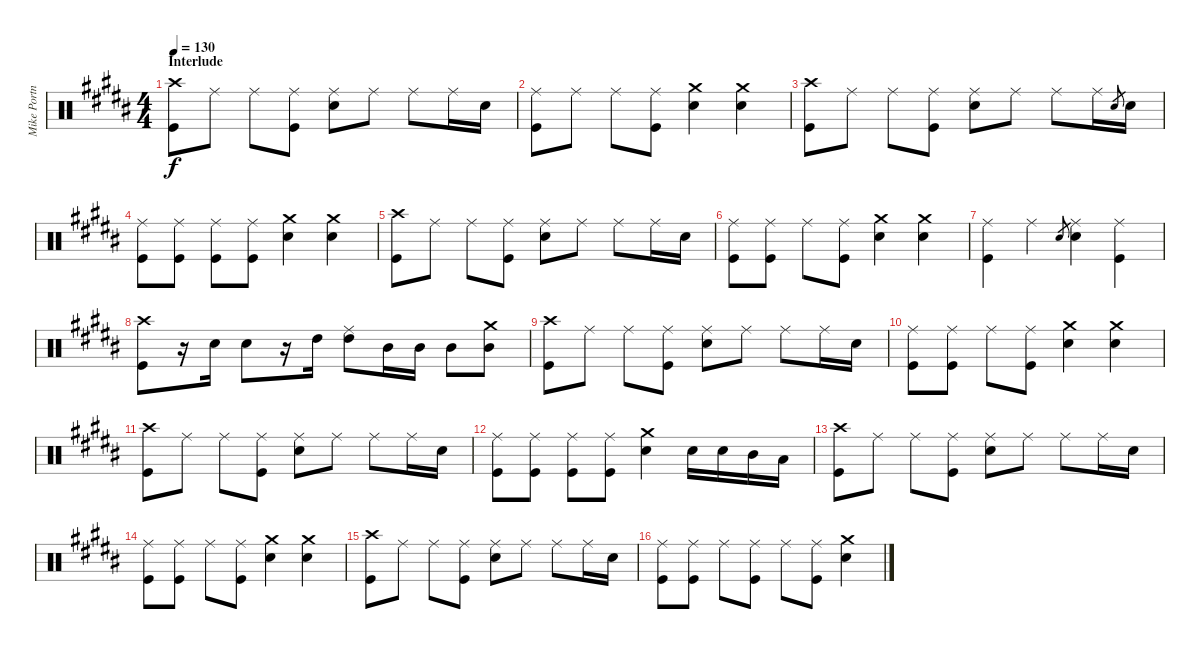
\track ("Mike Portnoy" "Mike Portn") {instrument percussion}
\staff {score}
\articulation defaults
\ts (4 4)
\section ("" "Interlude")
\tempo 130
\clef neutral
\ks g#minor
("Crash high (hit)" "Kick (hit)").8{dy f} "Ride (middle)".8 "Ride (middle)".8 ("Ride (middle)" "Kick (hit)").8 ("Ride (middle)" "Electric Snare (hit)").8 "Ride (middle)".8 "Ride (middle)".8 "Ride (middle)".16 "Electric Snare (hit)".16 |
("Ride (middle)" "Kick (hit)").8 "Ride (middle)".8 "Ride (middle)".8 ("Ride (middle)" "Kick (hit)").8 ("Crash medium (hit)" "Electric Snare (hit)").4 ("Crash medium (hit)" "Electric Snare (hit)").4 |
("Crash high (hit)" "Kick (hit)").8 "Ride (middle)".8 "Ride (middle)".8 ("Ride (middle)" "Kick (hit)").8 ("Ride (middle)" "Electric Snare (hit)").8 "Ride (middle)".8 "Ride (middle)".8 "Ride (middle)".16 "Electric Snare (hit)".8{gr} "Electric Snare (hit)".16 |
("Ride (middle)" "Kick (hit)").8 ("Ride (middle)" "Kick (hit)").8 ("Ride (middle)" "Kick (hit)").8 ("Ride (middle)" "Kick (hit)").8 ("Crash medium (hit)" "Electric Snare (hit)").4 ("Crash medium (hit)" "Electric Snare (hit)").4 |
("Crash high (hit)" "Kick (hit)").8 "Ride (middle)".8 "Ride (middle)".8 ("Ride (middle)" "Kick (hit)").8 ("Ride (middle)" "Electric Snare (hit)").8 "Ride (middle)".8 "Ride (middle)".8 "Ride (middle)".16 "Electric Snare (hit)".16 |
("Ride (middle)" "Kick (hit)").8 ("Ride (middle)" "Kick (hit)").8 "Ride (middle)".8 ("Ride (middle)" "Kick (hit)").8 ("Crash medium (hit)" "Electric Snare (hit)").4 ("Crash medium (hit)" "Electric Snare (hit)").4 |
("Ride (middle)" "Kick (hit)").4 "Ride (middle)".4 "Electric Snare (hit)".8{gr} ("Ride (middle)" "Electric Snare (hit)").4 ("Ride (middle)" "Kick (hit)").4 |
("Crash high (hit)" "Kick (hit)").8 r.16 "Electric Snare (hit)".16 "Electric Snare (hit)".8 r.16 "High Tom (hit)".16 ("Ride (middle)" "High Tom (hit)").8 "Mid Tom (hit)".16 "Mid Tom (hit)".16 "Mid Tom (hit)".8 ("Crash medium (hit)" "Mid Tom (hit)").8 |
("Crash high (hit)" "Kick (hit)").8 "Ride (middle)".8 "Ride (middle)".8 ("Ride (middle)" "Kick (hit)").8 ("Ride (middle)" "Electric Snare (hit)").8 "Ride (middle)".8 "Ride (middle)".8 "Ride (middle)".16 "Electric Snare (hit)".16 |
("Ride (middle)" "Kick (hit)").8 ("Ride (middle)" "Kick (hit)").8 "Ride (middle)".8 ("Ride (middle)" "Kick (hit)").8 ("Crash medium (hit)" "Electric Snare (hit)").4 ("Crash medium (hit)" "Electric Snare (hit)").4 |
("Crash high (hit)" "Kick (hit)").8 "Ride (middle)".8 "Ride (middle)".8 ("Ride (middle)" "Kick (hit)").8 ("Ride (middle)" "Electric Snare (hit)").8 "Ride (middle)".8 "Ride (middle)".8 "Ride (middle)".16 "Electric Snare (hit)".16 |
("Ride (middle)" "Kick (hit)").8 ("Ride (middle)" "Kick (hit)").8 ("Ride (middle)" "Kick (hit)").8 ("Ride (middle)" "Kick (hit)").8 ("Crash medium (hit)" "Electric Snare (hit)").4 "Electric Snare (hit)".16 "Electric Snare (hit)".16 "Mid Tom (hit)".16 "Low Tom (hit)".16 |
("Crash high (hit)" "Kick (hit)").8 "Ride (middle)".8 "Ride (middle)".8 ("Ride (middle)" "Kick (hit)").8 ("Ride (middle)" "Electric Snare (hit)").8 "Ride (middle)".8 "Ride (middle)".8 "Ride (middle)".16 "Electric Snare (hit)".16 |
("Ride (middle)" "Kick (hit)").8 ("Ride (middle)" "Kick (hit)").8 "Ride (middle)".8 ("Ride (middle)" "Kick (hit)").8 ("Crash medium (hit)" "Electric Snare (hit)").4 ("Crash medium (hit)" "Electric Snare (hit)").4 |
("Crash high (hit)" "Kick (hit)").8 "Ride (middle)".8 "Ride (middle)".8 ("Ride (middle)" "Kick (hit)").8 ("Ride (middle)" "Electric Snare (hit)").8 "Ride (middle)".8 "Ride (middle)".8 "Ride (middle)".16 "Electric Snare (hit)".16 |
("Ride (middle)" "Kick (hit)").8 ("Ride (middle)" "Kick (hit)").8 "Ride (middle)".8 ("Ride (middle)" "Kick (hit)").8 "Ride (middle)".8 ("Ride (middle)" "Kick (hit)").8 ("Crash medium (hit)" "Electric Snare (hit)").4
